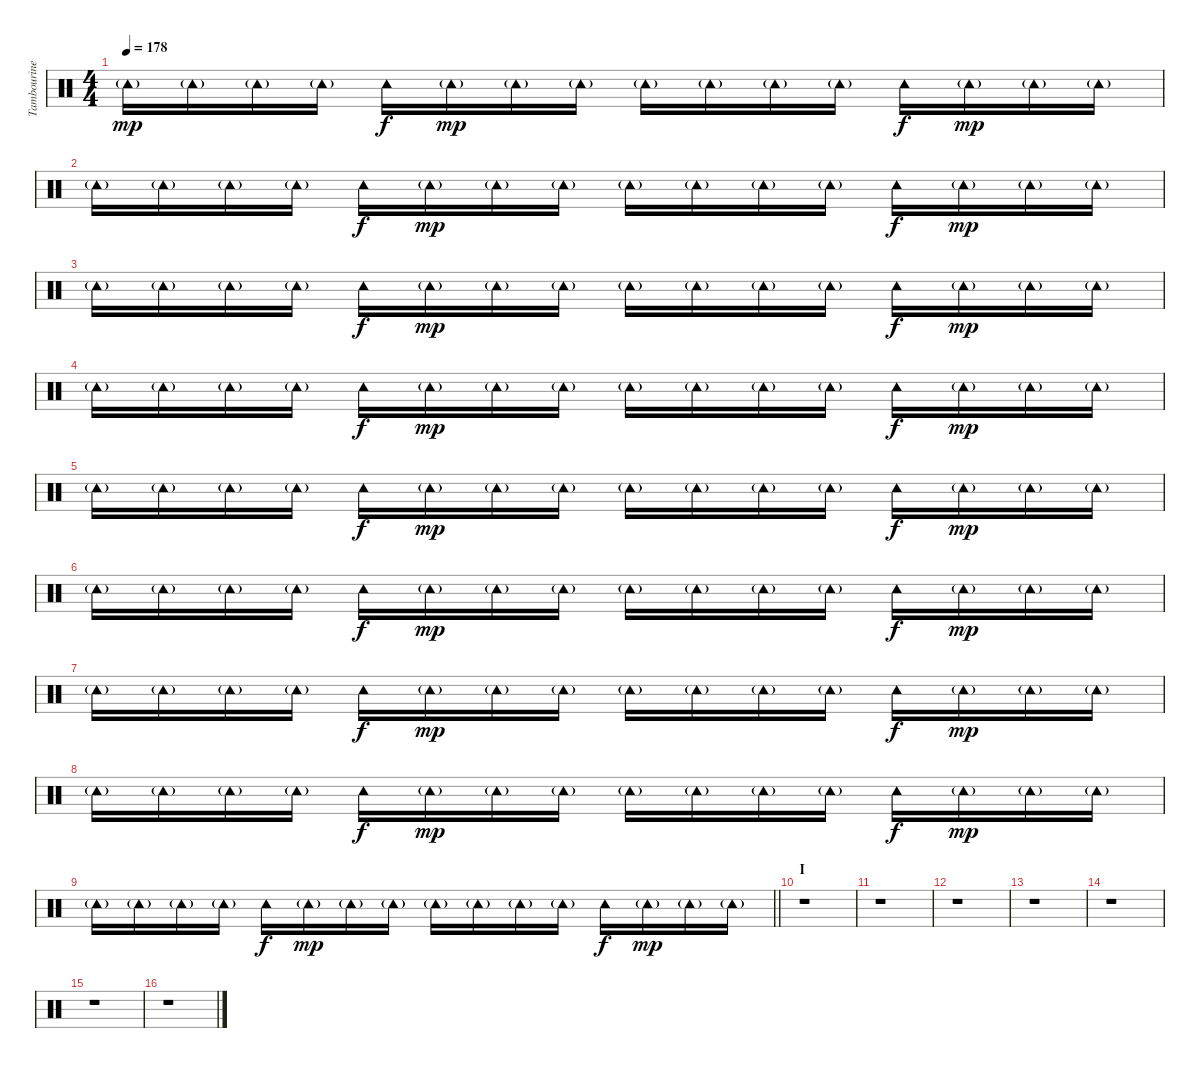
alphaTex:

\track ("Tambourine" "Tambourine") {instrument percussion}
\staff {score}
\articulation defaults
\ts (4 4)
\tempo 178
\clef neutral
\ks c "Tambourine (hit)"{g}.16{dy mp} "Tambourine (hit)"{g}.16 "Tambourine (hit)"{g}.16 "Tambourine (hit)"{g}.16 "Tambourine (hit)".16{dy f} "Tambourine (hit)"{g}.16{dy mp} "Tambourine (hit)"{g}.16 "Tambourine (hit)"{g}.16 "Tambourine (hit)"{g}.16 "Tambourine (hit)"{g}.16 "Tambourine (hit)"{g}.16 "Tambourine (hit)"{g}.16 "Tambourine (hit)".16{dy f} "Tambourine (hit)"{g}.16{dy mp} "Tambourine (hit)"{g}.16 "Tambourine (hit)"{g}.16
|
"Tambourine (hit)"{g}.16 "Tambourine (hit)"{g}.16 "Tambourine (hit)"{g}.16 "Tambourine (hit)"{g}.16 "Tambourine (hit)".16{dy f} "Tambourine (hit)"{g}.16{dy mp} "Tambourine (hit)"{g}.16 "Tambourine (hit)"{g}.16 "Tambourine (hit)"{g}.16 "Tambourine (hit)"{g}.16 "Tambourine (hit)"{g}.16 "Tambourine (hit)"{g}.16 "Tambourine (hit)".16{dy f} "Tambourine (hit)"{g}.16{dy mp} "Tambourine (hit)"{g}.16 "Tambourine (hit)"{g}.16 |
"Tambourine (hit)"{g}.16 "Tambourine (hit)"{g}.16 "Tambourine (hit)"{g}.16 "Tambourine (hit)"{g}.16 "Tambourine (hit)".16{dy f} "Tambourine (hit)"{g}.16{dy mp} "Tambourine (hit)"{g}.16 "Tambourine (hit)"{g}.16 "Tambourine (hit)"{g}.16 "Tambourine (hit)"{g}.16 "Tambourine (hit)"{g}.16 "Tambourine (hit)"{g}.16 "Tambourine (hit)".16{dy f} "Tambourine (hit)"{g}.16{dy mp} "Tambourine (hit)"{g}.16 "Tambourine (hit)"{g}.16 |
"Tambourine (hit)"{g}.16 "Tambourine (hit)"{g}.16 "Tambourine (hit)"{g}.16 "Tambourine (hit)"{g}.16 "Tambourine (hit)".16{dy f} "Tambourine (hit)"{g}.16{dy mp} "Tambourine (hit)"{g}.16 "Tambourine (hit)"{g}.16 "Tambourine (hit)"{g}.16 "Tambourine (hit)"{g}.16 "Tambourine (hit)"{g}.16 "Tambourine (hit)"{g}.16 "Tambourine (hit)".16{dy f} "Tambourine (hit)"{g}.16{dy mp} "Tambourine (hit)"{g}.16 "Tambourine (hit)"{g}.16 |
"Tambourine (hit)"{g}.16 "Tambourine (hit)"{g}.16 "Tambourine (hit)"{g}.16 "Tambourine (hit)"{g}.16 "Tambourine (hit)".16{dy f} "Tambourine (hit)"{g}.16{dy mp} "Tambourine (hit)"{g}.16 "Tambourine (hit)"{g}.16 "Tambourine (hit)"{g}.16 "Tambourine (hit)"{g}.16 "Tambourine (hit)"{g}.16 "Tambourine (hit)"{g}.16 "Tambourine (hit)".16{dy f} "Tambourine (hit)"{g}.16{dy mp} "Tambourine (hit)"{g}.16 "Tambourine (hit)"{g}.16 |
"Tambourine (hit)"{g}.16 "Tambourine (hit)"{g}.16 "Tambourine (hit)"{g}.16 "Tambourine (hit)"{g}.16 "Tambourine (hit)".16{dy f} "Tambourine (hit)"{g}.16{dy mp} "Tambourine (hit)"{g}.16 "Tambourine (hit)"{g}.16 "Tambourine (hit)"{g}.16 "Tambourine (hit)"{g}.16 "Tambourine (hit)"{g}.16 "Tambourine (hit)"{g}.16 "Tambourine (hit)".16{dy f} "Tambourine (hit)"{g}.16{dy mp} "Tambourine (hit)"{g}.16 "Tambourine (hit)"{g}.16 |
"Tambourine (hit)"{g}.16 "Tambourine (hit)"{g}.16 "Tambourine (hit)"{g}.16 "Tambourine (hit)"{g}.16 "Tambourine (hit)".16{dy f} "Tambourine (hit)"{g}.16{dy mp} "Tambourine (hit)"{g}.16 "Tambourine (hit)"{g}.16 "Tambourine (hit)"{g}.16 "Tambourine (hit)"{g}.16 "Tambourine (hit)"{g}.16 "Tambourine (hit)"{g}.16 "Tambourine (hit)".16{dy f} "Tambourine (hit)"{g}.16{dy mp} "Tambourine (hit)"{g}.16 "Tambourine (hit)"{g}.16 |
"Tambourine (hit)"{g}.16 "Tambourine (hit)"{g}.16 "Tambourine (hit)"{g}.16 "Tambourine (hit)"{g}.16 "Tambourine (hit)".16{dy f} "Tambourine (hit)"{g}.16{dy mp} "Tambourine (hit)"{g}.16 "Tambourine (hit)"{g}.16 "Tambourine (hit)"{g}.16 "Tambourine (hit)"{g}.16 "Tambourine (hit)"{g}.16 "Tambourine (hit)"{g}.16 "Tambourine (hit)".16{dy f} "Tambourine (hit)"{g}.16{dy mp} "Tambourine (hit)"{g}.16 "Tambourine (hit)"{g}.16 |
\barLineRight lightlight "Tambourine (hit)"{g}.16 "Tambourine (hit)"{g}.16 "Tambourine (hit)"{g}.16 "Tambourine (hit)"{g}.16 "Tambourine (hit)".16{dy f} "Tambourine (hit)"{g}.16{dy mp} "Tambourine (hit)"{g}.16 "Tambourine (hit)"{g}.16 "Tambourine (hit)"{g}.16 "Tambourine (hit)"{g}.16 "Tambourine (hit)"{g}.16 "Tambourine (hit)"{g}.16 "Tambourine (hit)".16{dy f} "Tambourine (hit)"{g}.16{dy mp} "Tambourine (hit)"{g}.16 "Tambourine (hit)"{g}.16
|
\section ("" "I")
r.1 |
r.1 |
r.1 |
r.1 |
r.1 |
r.1 |
r.1
